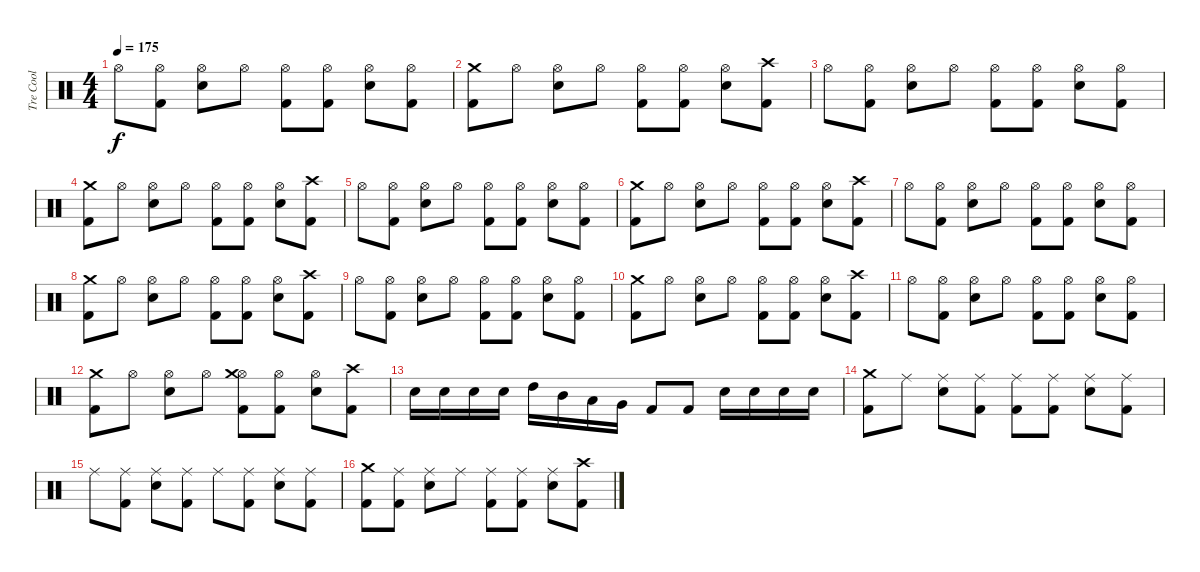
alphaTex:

\track ("Tre Cool" "Tre Cool") {instrument percussion}
\staff {score}
\articulation defaults
\ts (4 4)
\tempo 175
\clef neutral
\ks c "Hi-Hat (open)".8{dy f}
("Kick (hit) 2" "Hi-Hat (open)").8 ("Snare (hit) 2" "Hi-Hat (open)").8 "Hi-Hat (open)".8 ("Kick (hit) 2" "Hi-Hat (open)").8 ("Kick (hit) 2" "Hi-Hat (open)").8 ("Snare (hit) 2" "Hi-Hat (open)").8 ("Kick (hit) 2" "Hi-Hat (open)").8 |
("Kick (hit) 2" "Crash medium (hit)").8 "Hi-Hat (open)".8 ("Snare (hit) 2" "Hi-Hat (open)").8 "Hi-Hat (open)".8 ("Kick (hit) 2" "Hi-Hat (open)").8 ("Kick (hit) 2" "Hi-Hat (open)").8 ("Snare (hit) 2" "Hi-Hat (open)").8 ("Kick (hit) 2" "Crash high (hit)").8 |
"Hi-Hat (open)".8 ("Kick (hit) 2" "Hi-Hat (open)").8 ("Snare (hit) 2" "Hi-Hat (open)").8 "Hi-Hat (open)".8 ("Kick (hit) 2" "Hi-Hat (open)").8 ("Kick (hit) 2" "Hi-Hat (open)").8 ("Snare (hit) 2" "Hi-Hat (open)").8 ("Kick (hit) 2" "Hi-Hat (open)").8 |
("Kick (hit) 2" "Crash medium (hit)").8 "Hi-Hat (open)".8 ("Snare (hit) 2" "Hi-Hat (open)").8 "Hi-Hat (open)".8 ("Kick (hit) 2" "Hi-Hat (open)").8 ("Kick (hit) 2" "Hi-Hat (open)").8 ("Snare (hit) 2" "Hi-Hat (open)").8 ("Kick (hit) 2" "Crash high (hit)").8 |
"Hi-Hat (open)".8 ("Kick (hit) 2" "Hi-Hat (open)").8 ("Snare (hit) 2" "Hi-Hat (open)").8 "Hi-Hat (open)".8 ("Kick (hit) 2" "Hi-Hat (open)").8 ("Kick (hit) 2" "Hi-Hat (open)").8 ("Snare (hit) 2" "Hi-Hat (open)").8 ("Kick (hit) 2" "Hi-Hat (open)").8 |
("Kick (hit) 2" "Crash medium (hit)").8 "Hi-Hat (open)".8 ("Snare (hit) 2" "Hi-Hat (open)").8 "Hi-Hat (open)".8 ("Kick (hit) 2" "Hi-Hat (open)").8 ("Kick (hit) 2" "Hi-Hat (open)").8 ("Snare (hit) 2" "Hi-Hat (open)").8 ("Kick (hit) 2" "Crash high (hit)").8 |
"Hi-Hat (open)".8 ("Kick (hit) 2" "Hi-Hat (open)").8 ("Snare (hit) 2" "Hi-Hat (open)").8 "Hi-Hat (open)".8 ("Kick (hit) 2" "Hi-Hat (open)").8 ("Kick (hit) 2" "Hi-Hat (open)").8 ("Snare (hit) 2" "Hi-Hat (open)").8 ("Kick (hit) 2" "Hi-Hat (open)").8 |
("Kick (hit) 2" "Crash medium (hit)").8 "Hi-Hat (open)".8 ("Snare (hit) 2" "Hi-Hat (open)").8 "Hi-Hat (open)".8 ("Kick (hit) 2" "Hi-Hat (open)").8 ("Kick (hit) 2" "Hi-Hat (open)").8 ("Snare (hit) 2" "Hi-Hat (open)").8 ("Kick (hit) 2" "Crash high (hit)").8 |
"Hi-Hat (open)".8 ("Kick (hit) 2" "Hi-Hat (open)").8 ("Snare (hit) 2" "Hi-Hat (open)").8 "Hi-Hat (open)".8 ("Kick (hit) 2" "Hi-Hat (open)").8 ("Kick (hit) 2" "Hi-Hat (open)").8 ("Snare (hit) 2" "Hi-Hat (open)").8 ("Kick (hit) 2" "Hi-Hat (open)").8 |
("Kick (hit) 2" "Crash medium (hit)").8 "Hi-Hat (open)".8 ("Snare (hit) 2" "Hi-Hat (open)").8 "Hi-Hat (open)".8 ("Kick (hit) 2" "Hi-Hat (open)").8 ("Kick (hit) 2" "Hi-Hat (open)").8 ("Snare (hit) 2" "Hi-Hat (open)").8 ("Kick (hit) 2" "Crash high (hit)").8 |
"Hi-Hat (open)".8 ("Kick (hit) 2" "Hi-Hat (open)").8 ("Snare (hit) 2" "Hi-Hat (open)").8 "Hi-Hat (open)".8 ("Kick (hit) 2" "Hi-Hat (open)").8 ("Kick (hit) 2" "Hi-Hat (open)").8 ("Snare (hit) 2" "Hi-Hat (open)").8 ("Kick (hit) 2" "Hi-Hat (open)").8 |
("Kick (hit) 2" "Crash medium (hit)").8 "Hi-Hat (open)".8 ("Snare (hit) 2" "Hi-Hat (open)").8 "Hi-Hat (open)".8 ("Kick (hit) 2" "Hi-Hat (open)" "Crash medium (hit)").8 ("Kick (hit) 2" "Hi-Hat (open)").8 ("Snare (hit) 2" "Hi-Hat (open)").8 ("Kick (hit) 2" "Crash high (hit)").8 |
"Snare (hit) 2".16 "Snare (hit) 2".16 "Snare (hit) 2".16 "Snare (hit) 2".16 "High Tom (hit)".16 "Mid Tom (hit)".16 "Low Tom (hit)".16 "Very Low Tom (hit)".16 "Kick (hit) 2".8 "Kick (hit) 2".8 "Snare (hit) 2".16 "Snare (hit) 2".16 "Snare (hit) 2".16 "Snare (hit) 2".16 |
("Kick (hit) 2" "Crash medium (hit)").8 "Ride (middle)".8 ("Snare (hit) 2" "Ride (middle)").8 ("Kick (hit) 2" "Ride (middle)").8 ("Kick (hit) 2" "Ride (middle)").8 ("Kick (hit) 2" "Ride (middle)").8 ("Snare (hit) 2" "Ride (middle)").8 ("Kick (hit) 2" "Ride (middle)").8 |
"Ride (middle)".8 ("Kick (hit) 2" "Ride (middle)").8 ("Snare (hit) 2" "Ride (middle)").8 ("Kick (hit) 2" "Ride (middle)").8 "Ride (middle)".8 ("Kick (hit) 2" "Ride (middle)").8 ("Snare (hit) 2" "Ride (middle)").8 ("Kick (hit) 2" "Ride (middle)").8 |
("Kick (hit) 2" "Crash medium (hit)").8 ("Kick (hit) 2" "Ride (middle)").8 ("Snare (hit) 2" "Ride (middle)").8 "Ride (middle)".8 ("Kick (hit) 2" "Ride (middle)").8 ("Kick (hit) 2" "Ride (middle)").8 ("Snare (hit) 2" "Ride (middle)").8 ("Kick (hit) 2" "Crash high (hit)").8
